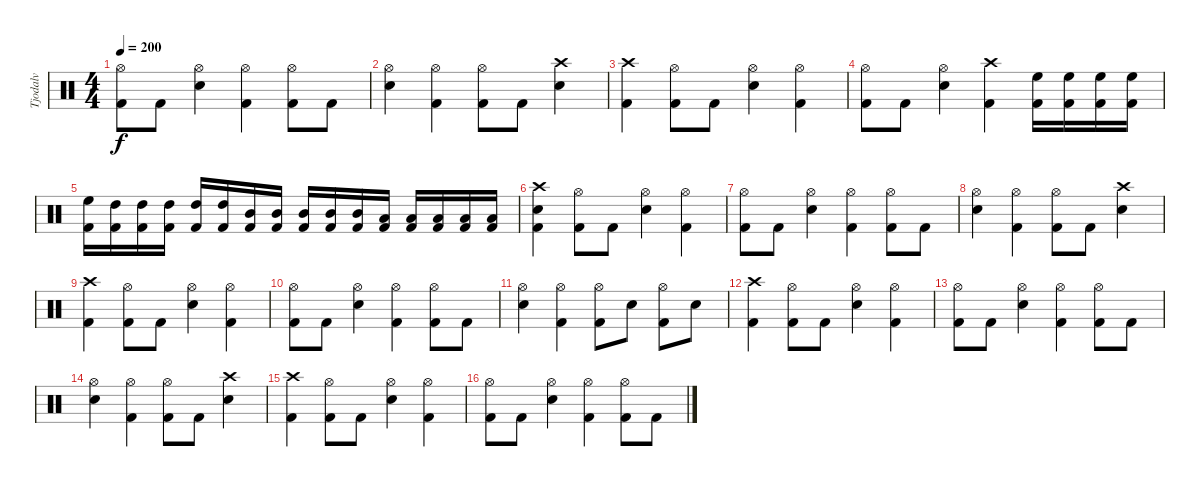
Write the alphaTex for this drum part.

\track ("Tjodalv" "Tjodalv") {instrument percussion}
\staff {score}
\articulation defaults
\ts (4 4)
\tempo 200
\clef neutral
\ks c
("Kick (hit) 2" "Hi-Hat (open)").8{dy f} "Kick (hit) 2".8 ("Snare (hit) 2" "Hi-Hat (open)").4 ("Kick (hit) 2" "Hi-Hat (open)").4 ("Kick (hit) 2" "Hi-Hat (open)").8 "Kick (hit) 2".8 |
("Snare (hit) 2" "Hi-Hat (open)").4 ("Kick (hit) 2" "Hi-Hat (open)").4 ("Kick (hit) 2" "Hi-Hat (open)").8 "Kick (hit) 2".8 ("Snare (hit) 2" "Crash high (hit)").4 |
("Kick (hit) 2" "Crash high (hit)").4 ("Kick (hit) 2" "Hi-Hat (open)").8 "Kick (hit) 2".8 ("Snare (hit) 2" "Hi-Hat (open)").4 ("Kick (hit) 2" "Hi-Hat (open)").4 |
("Kick (hit) 2" "Hi-Hat (open)").8 "Kick (hit) 2".8 ("Snare (hit) 2" "Hi-Hat (open)").4 ("Kick (hit) 2" "Crash high (hit)").4 ("Kick (hit) 2" "High Floor Tom (hit)").16 ("Kick (hit) 2" "High Floor Tom (hit)").16 ("Kick (hit) 2" "High Floor Tom (hit)").16 ("Kick (hit) 2" "High Floor Tom (hit)").16 |
("Kick (hit) 2" "High Floor Tom (hit)").16 ("Kick (hit) 2" "High Tom (hit)").16 ("Kick (hit) 2" "High Tom (hit)").16 ("Kick (hit) 2" "High Tom (hit)").16 ("Kick (hit) 2" "High Tom (hit)").16 ("Kick (hit) 2" "High Tom (hit)").16 ("Kick (hit) 2" "Mid Tom (hit)").16 ("Kick (hit) 2" "Mid Tom (hit)").16 ("Kick (hit) 2" "Mid Tom (hit)").16 ("Kick (hit) 2" "Mid Tom (hit)").16 ("Kick (hit) 2" "Mid Tom (hit)").16 ("Kick (hit) 2" "Low Tom (hit)").16 ("Kick (hit) 2" "Low Tom (hit)").16 ("Kick (hit) 2" "Low Tom (hit)").16 ("Kick (hit) 2" "Low Tom (hit)").16 ("Kick (hit) 2" "Low Tom (hit)").16 |
("Kick (hit) 2" "Snare (hit) 2" "Crash high (hit)").4 ("Kick (hit) 2" "Hi-Hat (open)").8 "Kick (hit) 2".8 ("Snare (hit) 2" "Hi-Hat (open)").4 ("Kick (hit) 2" "Hi-Hat (open)").4 |
("Kick (hit) 2" "Hi-Hat (open)").8 "Kick (hit) 2".8 ("Snare (hit) 2" "Hi-Hat (open)").4 ("Kick (hit) 2" "Hi-Hat (open)").4 ("Kick (hit) 2" "Hi-Hat (open)").8 "Kick (hit) 2".8 |
("Snare (hit) 2" "Hi-Hat (open)").4 ("Kick (hit) 2" "Hi-Hat (open)").4 ("Kick (hit) 2" "Hi-Hat (open)").8 "Kick (hit) 2".8 ("Snare (hit) 2" "Crash high (hit)").4 |
("Kick (hit) 2" "Crash high (hit)").4 ("Kick (hit) 2" "Hi-Hat (open)").8 "Kick (hit) 2".8 ("Snare (hit) 2" "Hi-Hat (open)").4 ("Kick (hit) 2" "Hi-Hat (open)").4 |
("Kick (hit) 2" "Hi-Hat (open)").8 "Kick (hit) 2".8 ("Snare (hit) 2" "Hi-Hat (open)").4 ("Kick (hit) 2" "Hi-Hat (open)").4 ("Kick (hit) 2" "Hi-Hat (open)").8 "Kick (hit) 2".8 |
("Snare (hit) 2" "Hi-Hat (open)").4 ("Kick (hit) 2" "Hi-Hat (open)").4 ("Kick (hit) 2" "Hi-Hat (open)").8 "Snare (hit) 2".8 ("Kick (hit) 2" "Hi-Hat (open)").8 "Snare (hit) 2".8 |
("Kick (hit) 2" "Crash high (hit)").4 ("Kick (hit) 2" "Hi-Hat (open)").8 "Kick (hit) 2".8 ("Snare (hit) 2" "Hi-Hat (open)").4 ("Kick (hit) 2" "Hi-Hat (open)").4 |
("Kick (hit) 2" "Hi-Hat (open)").8 "Kick (hit) 2".8 ("Snare (hit) 2" "Hi-Hat (open)").4 ("Kick (hit) 2" "Hi-Hat (open)").4 ("Kick (hit) 2" "Hi-Hat (open)").8 "Kick (hit) 2".8 |
("Snare (hit) 2" "Hi-Hat (open)").4 ("Kick (hit) 2" "Hi-Hat (open)").4 ("Kick (hit) 2" "Hi-Hat (open)").8 "Kick (hit) 2".8 ("Snare (hit) 2" "Crash high (hit)").4 |
("Kick (hit) 2" "Crash high (hit)").4 ("Kick (hit) 2" "Hi-Hat (open)").8 "Kick (hit) 2".8 ("Snare (hit) 2" "Hi-Hat (open)").4 ("Kick (hit) 2" "Hi-Hat (open)").4 |
("Kick (hit) 2" "Hi-Hat (open)").8 "Kick (hit) 2".8 ("Snare (hit) 2" "Hi-Hat (open)").4 ("Kick (hit) 2" "Hi-Hat (open)").4 ("Kick (hit) 2" "Hi-Hat (open)").8 "Kick (hit) 2".8
